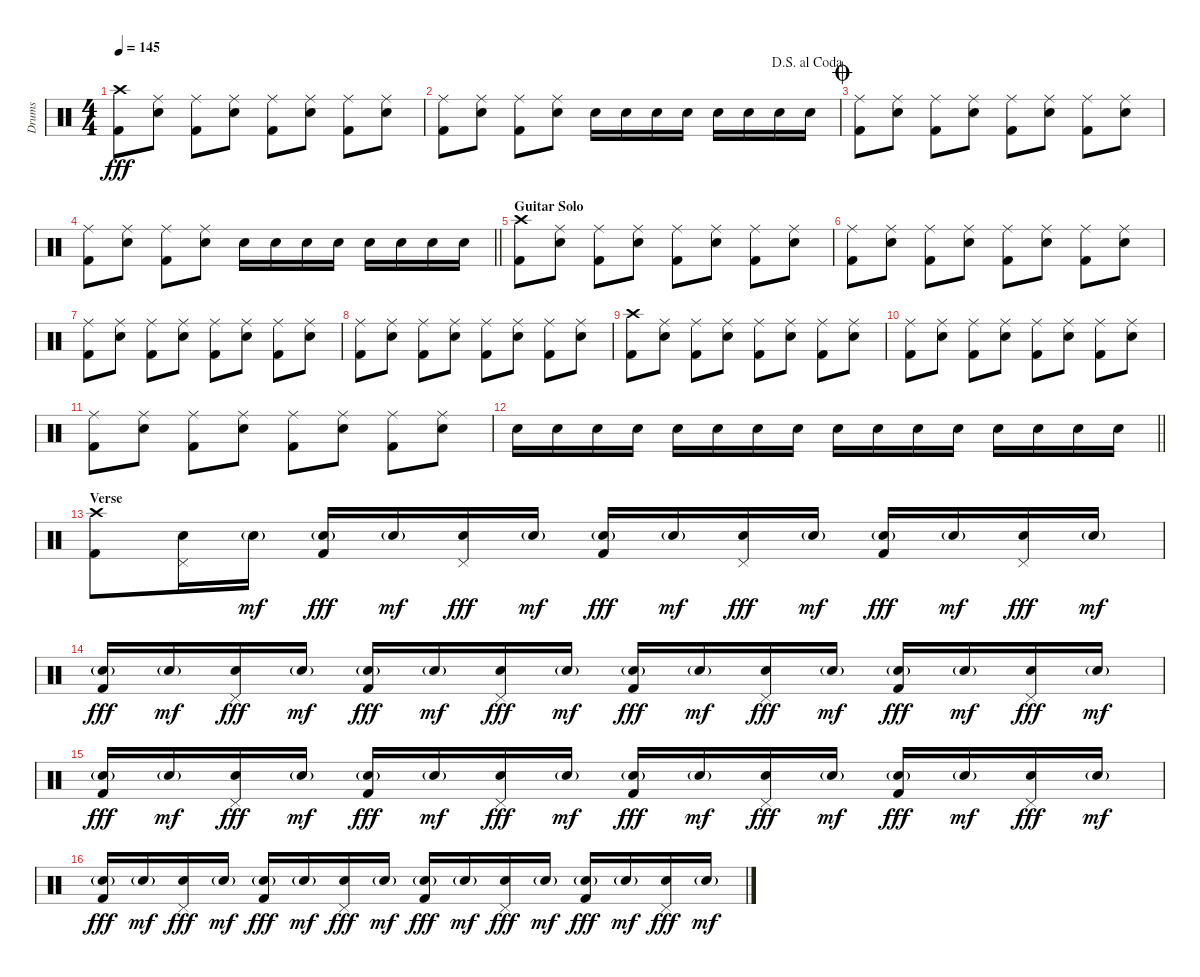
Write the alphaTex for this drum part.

\track ("Drums" "Drums") {instrument percussion}
\staff {score}
\articulation defaults
\ts (4 4)
\tempo 145
\clef neutral
\ks c
("Crash high (hit)" "Kick (hit) 2").8{dy fff} ("Ride (middle)" "Snare (hit) 2").8 ("Ride (middle)" "Kick (hit) 2").8 ("Ride (middle)" "Snare (hit) 2").8 ("Ride (middle)" "Kick (hit) 2").8 ("Ride (middle)" "Snare (hit) 2").8 ("Ride (middle)" "Kick (hit) 2").8 ("Ride (middle)" "Snare (hit) 2").8 |
\jump dalsegnoalcoda
("Ride (middle)" "Kick (hit) 2").8 ("Ride (middle)" "Snare (hit) 2").8 ("Ride (middle)" "Kick (hit) 2").8 ("Ride (middle)" "Snare (hit) 2").8 "Snare (hit) 2".16 "Snare (hit) 2".16 "Snare (hit) 2".16 "Snare (hit) 2".16 "Snare (hit) 2".16 "Snare (hit) 2".16 "Snare (hit) 2".16 "Snare (hit) 2".16 |
\jump coda
("Ride (middle)" "Kick (hit) 2").8 ("Ride (middle)" "Snare (hit) 2").8 ("Ride (middle)" "Kick (hit) 2").8 ("Ride (middle)" "Snare (hit) 2").8 ("Ride (middle)" "Kick (hit) 2").8 ("Ride (middle)" "Snare (hit) 2").8 ("Ride (middle)" "Kick (hit) 2").8 ("Ride (middle)" "Snare (hit) 2").8 |
\barLineRight lightlight
("Ride (middle)" "Kick (hit) 2").8 ("Ride (middle)" "Snare (hit) 2").8 ("Ride (middle)" "Kick (hit) 2").8 ("Ride (middle)" "Snare (hit) 2").8 "Snare (hit) 2".16 "Snare (hit) 2".16 "Snare (hit) 2".16 "Snare (hit) 2".16 "Snare (hit) 2".16 "Snare (hit) 2".16 "Snare (hit) 2".16 "Snare (hit) 2".16 |
\section ("" "Guitar Solo")
("Crash high (hit)" "Kick (hit) 2").8 ("Ride (middle)" "Snare (hit) 2").8 ("Ride (middle)" "Kick (hit) 2").8 ("Ride (middle)" "Snare (hit) 2").8 ("Ride (middle)" "Kick (hit) 2").8 ("Ride (middle)" "Snare (hit) 2").8 ("Ride (middle)" "Kick (hit) 2").8 ("Ride (middle)" "Snare (hit) 2").8 |
("Ride (middle)" "Kick (hit) 2").8 ("Ride (middle)" "Snare (hit) 2").8 ("Ride (middle)" "Kick (hit) 2").8 ("Ride (middle)" "Snare (hit) 2").8 ("Ride (middle)" "Kick (hit) 2").8 ("Ride (middle)" "Snare (hit) 2").8 ("Ride (middle)" "Kick (hit) 2").8 ("Ride (middle)" "Snare (hit) 2").8 |
("Ride (middle)" "Kick (hit) 2").8 ("Ride (middle)" "Snare (hit) 2").8 ("Ride (middle)" "Kick (hit) 2").8 ("Ride (middle)" "Snare (hit) 2").8 ("Ride (middle)" "Kick (hit) 2").8 ("Ride (middle)" "Snare (hit) 2").8 ("Ride (middle)" "Kick (hit) 2").8 ("Ride (middle)" "Snare (hit) 2").8 |
("Ride (middle)" "Kick (hit) 2").8 ("Ride (middle)" "Snare (hit) 2").8 ("Ride (middle)" "Kick (hit) 2").8 ("Ride (middle)" "Snare (hit) 2").8 ("Ride (middle)" "Kick (hit) 2").8 ("Ride (middle)" "Snare (hit) 2").8 ("Ride (middle)" "Kick (hit) 2").8 ("Ride (middle)" "Snare (hit) 2").8 |
("Crash high (hit)" "Kick (hit) 2").8 ("Ride (middle)" "Snare (hit) 2").8 ("Ride (middle)" "Kick (hit) 2").8 ("Ride (middle)" "Snare (hit) 2").8 ("Ride (middle)" "Kick (hit) 2").8 ("Ride (middle)" "Snare (hit) 2").8 ("Ride (middle)" "Kick (hit) 2").8 ("Ride (middle)" "Snare (hit) 2").8 |
("Ride (middle)" "Kick (hit) 2").8 ("Ride (middle)" "Snare (hit) 2").8 ("Ride (middle)" "Kick (hit) 2").8 ("Ride (middle)" "Snare (hit) 2").8 ("Ride (middle)" "Kick (hit) 2").8 ("Ride (middle)" "Snare (hit) 2").8 ("Ride (middle)" "Kick (hit) 2").8 ("Ride (middle)" "Snare (hit) 2").8 |
("Ride (middle)" "Kick (hit) 2").8 ("Ride (middle)" "Snare (hit) 2").8 ("Ride (middle)" "Kick (hit) 2").8 ("Ride (middle)" "Snare (hit) 2").8 ("Ride (middle)" "Kick (hit) 2").8 ("Ride (middle)" "Snare (hit) 2").8 ("Ride (middle)" "Kick (hit) 2").8 ("Ride (middle)" "Snare (hit) 2").8 |
\barLineRight lightlight "Snare (hit) 2".16 "Snare (hit) 2".16 "Snare (hit) 2".16 "Snare (hit) 2".16 "Snare (hit) 2".16 "Snare (hit) 2".16 "Snare (hit) 2".16 "Snare (hit) 2".16 "Snare (hit) 2".16 "Snare (hit) 2".16 "Snare (hit) 2".16 "Snare (hit) 2".16 "Snare (hit) 2".16 "Snare (hit) 2".16 "Snare (hit) 2".16 "Snare (hit) 2".16
|
\section ("" "Verse")
("Crash high (hit)" "Kick (hit) 2").8 ("Pedal Hi-Hat (hit)" "Snare (hit) 2").16 "Snare (hit) 2"{g}.16{dy mf} ("Snare (hit) 2"{g} "Kick (hit) 2").16{dy fff} "Snare (hit) 2"{g}.16{dy mf} ("Pedal Hi-Hat (hit)" "Snare (hit) 2").16{dy fff} "Snare (hit) 2"{g}.16{dy mf} ("Snare (hit) 2"{g} "Kick (hit) 2").16{dy fff} "Snare (hit) 2"{g}.16{dy mf} ("Pedal Hi-Hat (hit)" "Snare (hit) 2").16{dy fff} "Snare (hit) 2"{g}.16{dy mf} ("Snare (hit) 2"{g} "Kick (hit) 2").16{dy fff} "Snare (hit) 2"{g}.16{dy mf} ("Pedal Hi-Hat (hit)" "Snare (hit) 2").16{dy fff} "Snare (hit) 2"{g}.16{dy mf} |
("Snare (hit) 2"{g} "Kick (hit) 2").16{dy fff} "Snare (hit) 2"{g}.16{dy mf} ("Pedal Hi-Hat (hit)" "Snare (hit) 2").16{dy fff} "Snare (hit) 2"{g}.16{dy mf} ("Snare (hit) 2"{g} "Kick (hit) 2").16{dy fff} "Snare (hit) 2"{g}.16{dy mf} ("Pedal Hi-Hat (hit)" "Snare (hit) 2").16{dy fff} "Snare (hit) 2"{g}.16{dy mf} ("Snare (hit) 2"{g} "Kick (hit) 2").16{dy fff} "Snare (hit) 2"{g}.16{dy mf} ("Pedal Hi-Hat (hit)" "Snare (hit) 2").16{dy fff} "Snare (hit) 2"{g}.16{dy mf} ("Snare (hit) 2"{g} "Kick (hit) 2").16{dy fff} "Snare (hit) 2"{g}.16{dy mf} ("Pedal Hi-Hat (hit)" "Snare (hit) 2").16{dy fff} "Snare (hit) 2"{g}.16{dy mf} |
("Snare (hit) 2"{g} "Kick (hit) 2").16{dy fff} "Snare (hit) 2"{g}.16{dy mf} ("Pedal Hi-Hat (hit)" "Snare (hit) 2").16{dy fff} "Snare (hit) 2"{g}.16{dy mf} ("Snare (hit) 2"{g} "Kick (hit) 2").16{dy fff} "Snare (hit) 2"{g}.16{dy mf} ("Pedal Hi-Hat (hit)" "Snare (hit) 2").16{dy fff} "Snare (hit) 2"{g}.16{dy mf} ("Snare (hit) 2"{g} "Kick (hit) 2").16{dy fff} "Snare (hit) 2"{g}.16{dy mf} ("Pedal Hi-Hat (hit)" "Snare (hit) 2").16{dy fff} "Snare (hit) 2"{g}.16{dy mf} ("Snare (hit) 2"{g} "Kick (hit) 2").16{dy fff} "Snare (hit) 2"{g}.16{dy mf} ("Pedal Hi-Hat (hit)" "Snare (hit) 2").16{dy fff} "Snare (hit) 2"{g}.16{dy mf} |
("Snare (hit) 2"{g} "Kick (hit) 2").16{dy fff} "Snare (hit) 2"{g}.16{dy mf} ("Pedal Hi-Hat (hit)" "Snare (hit) 2").16{dy fff} "Snare (hit) 2"{g}.16{dy mf} ("Snare (hit) 2"{g} "Kick (hit) 2").16{dy fff} "Snare (hit) 2"{g}.16{dy mf} ("Pedal Hi-Hat (hit)" "Snare (hit) 2").16{dy fff} "Snare (hit) 2"{g}.16{dy mf} ("Snare (hit) 2"{g} "Kick (hit) 2").16{dy fff} "Snare (hit) 2"{g}.16{dy mf} ("Pedal Hi-Hat (hit)" "Snare (hit) 2").16{dy fff} "Snare (hit) 2"{g}.16{dy mf} ("Snare (hit) 2"{g} "Kick (hit) 2").16{dy fff} "Snare (hit) 2"{g}.16{dy mf} ("Pedal Hi-Hat (hit)" "Snare (hit) 2").16{dy fff} "Snare (hit) 2"{g}.16{dy mf}
